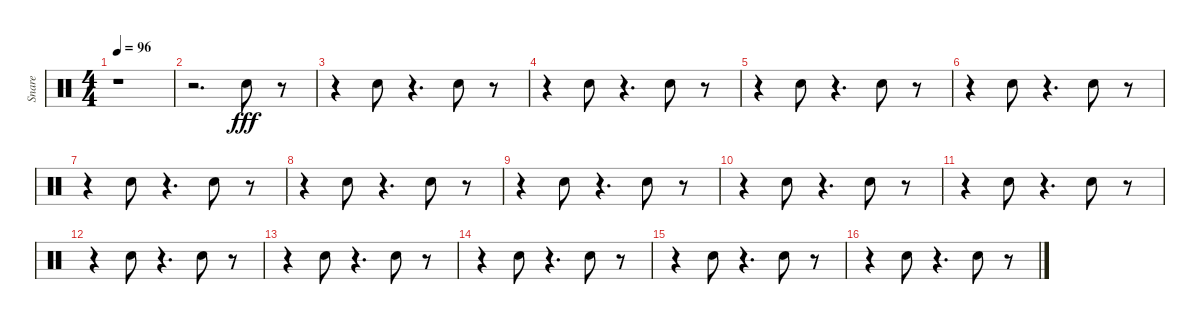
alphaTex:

\track ("Snare" "Snare") {instrument percussion}
\staff {score}
\articulation defaults
\ts (4 4)
\tempo 96
\clef neutral
\ks c
r.1{dy fff} |
r.2{d} "Snare (hit) 2".8 r.8 |
r.4 "Snare (hit) 2".8 r.4{d} "Snare (hit) 2".8 r.8 |
r.4 "Snare (hit) 2".8 r.4{d} "Snare (hit) 2".8 r.8 |
r.4 "Snare (hit) 2".8 r.4{d} "Snare (hit) 2".8 r.8 |
r.4 "Snare (hit) 2".8 r.4{d} "Snare (hit) 2".8 r.8 |
r.4 "Snare (hit) 2".8 r.4{d} "Snare (hit) 2".8 r.8 |
r.4 "Snare (hit) 2".8 r.4{d} "Snare (hit) 2".8 r.8 |
r.4 "Snare (hit) 2".8 r.4{d} "Snare (hit) 2".8 r.8 |
r.4 "Snare (hit) 2".8 r.4{d} "Snare (hit) 2".8 r.8 |
r.4 "Snare (hit) 2".8 r.4{d} "Snare (hit) 2".8 r.8 |
r.4 "Snare (hit) 2".8 r.4{d} "Snare (hit) 2".8 r.8 |
r.4 "Snare (hit) 2".8 r.4{d} "Snare (hit) 2".8 r.8 |
r.4 "Snare (hit) 2".8 r.4{d} "Snare (hit) 2".8 r.8 |
r.4 "Snare (hit) 2".8 r.4{d} "Snare (hit) 2".8 r.8 |
r.4 "Snare (hit) 2".8 r.4{d} "Snare (hit) 2".8 r.8
